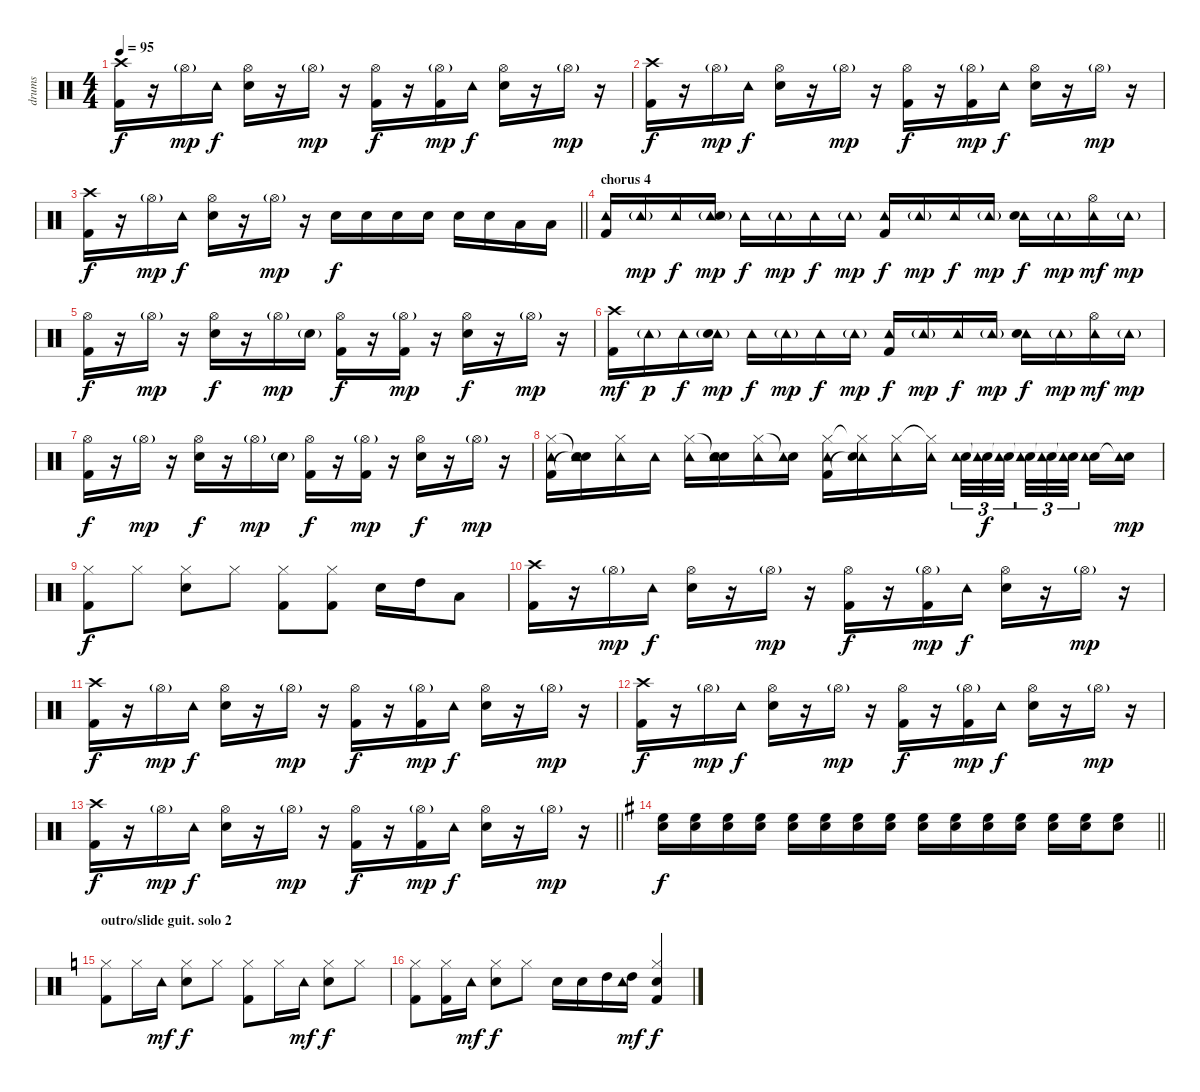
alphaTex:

\track ("drums" "drums") {instrument percussion}
\staff {score}
\articulation defaults
\ts (4 4)
\tempo 95
\clef neutral
\ks c
("Crash high (hit)" "Kick (hit) 2").16{dy f} r.16 "Hi-Hat (open)"{g}.16{dy mp} "Tambourine (hit)".16{dy f} ("Hi-Hat (open)" "Electric Snare (hit)").16 r.16 "Hi-Hat (open)"{g}.16{dy mp} r.16 ("Hi-Hat (open)" "Kick (hit) 2").16{dy f} r.16 ("Hi-Hat (open)"{g} "Kick (hit) 2").16{dy mp} "Tambourine (hit)".16{dy f} ("Hi-Hat (open)" "Electric Snare (hit)").16 r.16 "Hi-Hat (open)"{g}.16{dy mp} r.16 |
("Crash high (hit)" "Kick (hit) 2").16{dy f} r.16 "Hi-Hat (open)"{g}.16{dy mp} "Tambourine (hit)".16{dy f} ("Hi-Hat (open)" "Electric Snare (hit)").16 r.16 "Hi-Hat (open)"{g}.16{dy mp} r.16 ("Hi-Hat (open)" "Kick (hit) 2").16{dy f} r.16 ("Hi-Hat (open)"{g} "Kick (hit) 2").16{dy mp} "Tambourine (hit)".16{dy f} ("Hi-Hat (open)" "Electric Snare (hit)").16 r.16 "Hi-Hat (open)"{g}.16{dy mp} r.16 |
\barLineRight lightlight
("Crash high (hit)" "Kick (hit) 2").16{dy f} r.16 "Hi-Hat (open)"{g}.16{dy mp} "Tambourine (hit)".16{dy f} ("Hi-Hat (open)" "Electric Snare (hit)").16 r.16 "Hi-Hat (open)"{g}.16{dy mp} r.16 "Electric Snare (hit)".16{dy f} "Electric Snare (hit)".16 "Electric Snare (hit)".16 "Electric Snare (hit)".16 "Electric Snare (hit)".16 "Electric Snare (hit)".16 "Low Tom (hit)".16 "Low Tom (hit)".16 |
\section ("" "chorus 4")
("Tambourine (hit)" "Kick (hit) 2").16 "Tambourine (hit)"{g}.16{dy mp} "Tambourine (hit)".16{dy f} ("Tambourine (hit)"{g} "Electric Snare (hit)").16{dy mp} "Tambourine (hit)".16{dy f} "Tambourine (hit)"{g}.16{dy mp} "Tambourine (hit)".16{dy f} "Tambourine (hit)"{g}.16{dy mp} ("Tambourine (hit)" "Kick (hit) 2").16{dy f} "Tambourine (hit)"{g}.16{dy mp} "Tambourine (hit)".16{dy f} "Tambourine (hit)"{g}.16{dy mp} ("Tambourine (hit)" "Electric Snare (hit)").16{dy f} "Tambourine (hit)"{g}.16{dy mp} ("Hi-Hat (open)" "Tambourine (hit)").16{dy mf} "Tambourine (hit)"{g}.16{dy mp} |
("Hi-Hat (open)" "Kick (hit) 2").16{dy f} r.16 "Hi-Hat (open)"{g}.16{dy mp} r.16 ("Hi-Hat (open)" "Electric Snare (hit)").16{dy f} r.16 "Hi-Hat (open)"{g}.16{dy mp} "Electric Snare (hit)"{g}.16 ("Hi-Hat (open)" "Kick (hit) 2").16{dy f} r.16 ("Hi-Hat (open)"{g} "Kick (hit) 2").16{dy mp} r.16 ("Hi-Hat (open)" "Electric Snare (hit)").16{dy f} r.16 "Hi-Hat (open)"{g}.16{dy mp} r.16 |
("Crash high (hit)" "Kick (hit) 2").16{dy mf} "Tambourine (hit)"{g}.16{dy p} "Tambourine (hit)".16{dy f} ("Tambourine (hit)"{g} "Electric Snare (hit)").16{dy mp} "Tambourine (hit)".16{dy f} "Tambourine (hit)"{g}.16{dy mp} "Tambourine (hit)".16{dy f} "Tambourine (hit)"{g}.16{dy mp} ("Tambourine (hit)" "Kick (hit) 2").16{dy f} "Tambourine (hit)"{g}.16{dy mp} "Tambourine (hit)".16{dy f} "Tambourine (hit)"{g}.16{dy mp} ("Tambourine (hit)" "Electric Snare (hit)").16{dy f} "Tambourine (hit)"{g}.16{dy mp} ("Hi-Hat (open)" "Tambourine (hit)").16{dy mf} "Tambourine (hit)"{g}.16{dy mp} |
("Hi-Hat (open)" "Kick (hit) 2").16{dy f} r.16 "Hi-Hat (open)"{g}.16{dy mp} r.16 ("Hi-Hat (open)" "Electric Snare (hit)").16{dy f} r.16 "Hi-Hat (open)"{g}.16{dy mp} "Electric Snare (hit)"{g}.16 ("Hi-Hat (open)" "Kick (hit) 2").16{dy f} r.16 ("Hi-Hat (open)"{g} "Kick (hit) 2").16{dy mp} r.16 ("Hi-Hat (open)" "Electric Snare (hit)").16{dy f} r.16 "Hi-Hat (open)"{g}.16{dy mp} r.16 |
("Hi-Hat (closed)" "Tambourine (hit)" "Kick (hit) 2").16 ("Snare (hit)"{t} "Tambourine (hit)" "Snare (hit)"{t}).16 ("Hi-Hat (closed)" "Tambourine (hit)").16 "Tambourine (hit)".16 ("Hi-Hat (closed)" "Tambourine (hit)").16 ("Snare (hit)"{t} "Snare (hit) 2" "Tambourine (hit)").16 ("Hi-Hat (closed)" "Tambourine (hit)").16 ("Snare (hit)"{t} "Tambourine (hit)").16 ("Hi-Hat (closed)" "Tambourine (hit)" "Kick (hit) 2").16 ("Hi-Hat (closed)"{t} "Tambourine (hit)" "Snare (hit)"{t}).16 ("Hi-Hat (closed)" "Tambourine (hit)").16 ("Hi-Hat (closed)"{t} "Tambourine (hit)").16 ("Snare (hit) 2" "Tambourine (hit)").32{tu (3 2)} ("Snare (hit) 2"{t} "Tambourine (hit)"{t}).32{tu (3 2) dy f} ("Snare (hit) 2" "Tambourine (hit)"{t}).32{tu (3 2) beam splitsecondary} ("Snare (hit) 2"{t} "Tambourine (hit)").32{tu (3 2)} ("Snare (hit) 2" "Tambourine (hit)"{t}).32{tu (3 2)} ("Snare (hit) 2"{t} "Tambourine (hit)"{t}).32{tu (3 2) beam splitsecondary} ("Snare (hit) 2" "Tambourine (hit)").16 ("Snare (hit) 2"{t} "Tambourine (hit)").16{dy mp} |
("Hi-Hat (closed)" "Kick (hit) 2").8{dy f} "Hi-Hat (closed)".8 ("Hi-Hat (closed)" "Snare (hit) 2").8 "Hi-Hat (closed)".8 ("Hi-Hat (closed)" "Kick (hit) 2").8 ("Hi-Hat (closed)" "Kick (hit) 2").8 "Snare (hit) 2".16 "High Tom (hit)".16 "Low Tom (hit)".8 |
("Crash high (hit)" "Kick (hit) 2").16 r.16 "Hi-Hat (open)"{g}.16{dy mp} "Tambourine (hit)".16{dy f} ("Hi-Hat (open)" "Electric Snare (hit)").16 r.16 "Hi-Hat (open)"{g}.16{dy mp} r.16 ("Hi-Hat (open)" "Kick (hit) 2").16{dy f} r.16 ("Hi-Hat (open)"{g} "Kick (hit) 2").16{dy mp} "Tambourine (hit)".16{dy f} ("Hi-Hat (open)" "Electric Snare (hit)").16 r.16 "Hi-Hat (open)"{g}.16{dy mp} r.16 |
("Crash high (hit)" "Kick (hit) 2").16{dy f} r.16 "Hi-Hat (open)"{g}.16{dy mp} "Tambourine (hit)".16{dy f} ("Hi-Hat (open)" "Electric Snare (hit)").16 r.16 "Hi-Hat (open)"{g}.16{dy mp} r.16 ("Hi-Hat (open)" "Kick (hit) 2").16{dy f} r.16 ("Hi-Hat (open)"{g} "Kick (hit) 2").16{dy mp} "Tambourine (hit)".16{dy f} ("Hi-Hat (open)" "Electric Snare (hit)").16 r.16 "Hi-Hat (open)"{g}.16{dy mp} r.16 |
("Crash high (hit)" "Kick (hit) 2").16{dy f} r.16 "Hi-Hat (open)"{g}.16{dy mp} "Tambourine (hit)".16{dy f} ("Hi-Hat (open)" "Electric Snare (hit)").16 r.16 "Hi-Hat (open)"{g}.16{dy mp} r.16 ("Hi-Hat (open)" "Kick (hit) 2").16{dy f} r.16 ("Hi-Hat (open)"{g} "Kick (hit) 2").16{dy mp} "Tambourine (hit)".16{dy f} ("Hi-Hat (open)" "Electric Snare (hit)").16 r.16 "Hi-Hat (open)"{g}.16{dy mp} r.16 |
\barLineRight lightlight
("Crash high (hit)" "Kick (hit) 2").16{dy f} r.16 "Hi-Hat (open)"{g}.16{dy mp} "Tambourine (hit)".16{dy f} ("Hi-Hat (open)" "Electric Snare (hit)").16 r.16 "Hi-Hat (open)"{g}.16{dy mp} r.16 ("Hi-Hat (open)" "Kick (hit) 2").16{dy f} r.16 ("Hi-Hat (open)"{g} "Kick (hit) 2").16{dy mp} "Tambourine (hit)".16{dy f} ("Hi-Hat (open)" "Electric Snare (hit)").16 r.16 "Hi-Hat (open)"{g}.16{dy mp} r.16 |
\barLineRight lightlight
\ks g
("Snare (hit) 2" "High Floor Tom (hit)").16{dy f} ("Snare (hit) 2" "High Floor Tom (hit)").16 ("Snare (hit) 2" "High Floor Tom (hit)").16 ("Snare (hit) 2" "High Floor Tom (hit)").16 ("Snare (hit) 2" "High Floor Tom (hit)").16 ("Snare (hit) 2" "High Floor Tom (hit)").16 ("Snare (hit) 2" "High Floor Tom (hit)").16 ("Snare (hit) 2" "High Floor Tom (hit)").16 ("Snare (hit) 2" "High Floor Tom (hit)").16 ("Snare (hit) 2" "High Floor Tom (hit)").16 ("Snare (hit) 2" "High Floor Tom (hit)").16 ("Snare (hit) 2" "High Floor Tom (hit)").16 ("Snare (hit) 2" "High Floor Tom (hit)").16 ("Snare (hit) 2" "High Floor Tom (hit)").16 ("Snare (hit) 2" "High Floor Tom (hit)").8 |
\section ("" "outro/slide guit. solo 2")
\ks c
("Hi-Hat (closed)" "Kick (hit) 2").8 "Hi-Hat (closed)".16 "Tambourine (hit)".16{dy mf} ("Hi-Hat (closed)" "Snare (hit) 2").8{dy f} "Hi-Hat (closed)".8 ("Hi-Hat (closed)" "Kick (hit) 2").8 "Hi-Hat (closed)".16 "Tambourine (hit)".16{dy mf} ("Hi-Hat (closed)" "Snare (hit) 2").8{dy f} "Hi-Hat (closed)".8 |
("Hi-Hat (closed)" "Kick (hit) 2").8 ("Hi-Hat (closed)" "Kick (hit) 2").16 "Tambourine (hit)".16{dy mf} ("Hi-Hat (closed)" "Snare (hit) 2").8{dy f} "Hi-Hat (closed)".8 "Snare (hit) 2".16 "Snare (hit) 2".16 "High Tom (hit)".16 ("High Tom (hit)" "Tambourine (hit)").16{dy mf} ("Hi-Hat (closed)" "Snare (hit) 2" "Kick (hit) 2").4{dy f}
